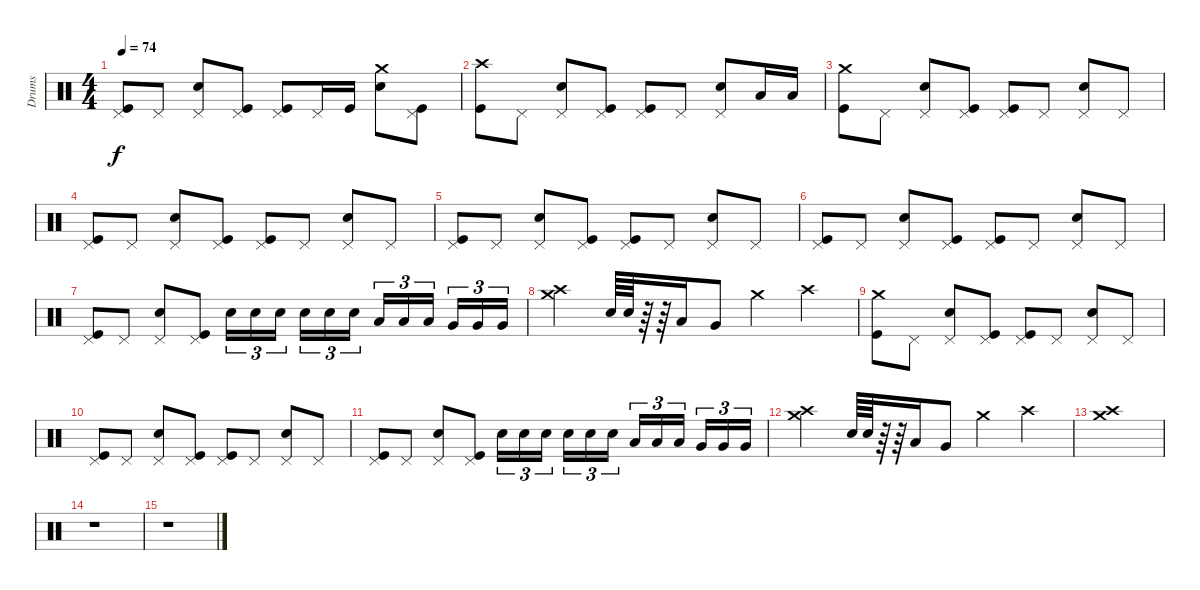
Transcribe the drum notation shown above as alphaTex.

\track ("Drums" "Drums") {instrument percussion}
\staff {score}
\articulation defaults
\ts (4 4)
\tempo 74
\clef neutral
\ks c
("Pedal Hi-Hat (hit)" "Kick (hit)").8{dy f} "Pedal Hi-Hat (hit)".8 ("Pedal Hi-Hat (hit)" "Snare (hit) 2").8 ("Pedal Hi-Hat (hit)" "Kick (hit)").8 ("Pedal Hi-Hat (hit)" "Kick (hit)").8 "Pedal Hi-Hat (hit)".16 "Kick (hit)".16 ("Crash medium (hit)" "Snare (hit) 2").8 ("Pedal Hi-Hat (hit)" "Kick (hit)").8 |
("Crash high (hit)" "Kick (hit)").8 "Pedal Hi-Hat (hit)".8 ("Pedal Hi-Hat (hit)" "Snare (hit) 2").8 ("Pedal Hi-Hat (hit)" "Kick (hit)").8 ("Pedal Hi-Hat (hit)" "Kick (hit)").8 "Pedal Hi-Hat (hit)".8 ("Pedal Hi-Hat (hit)" "Snare (hit) 2").8 "Low Tom (hit)".16 "Low Tom (hit)".16 |
("Crash medium (hit)" "Kick (hit)").8 "Pedal Hi-Hat (hit)".8 ("Pedal Hi-Hat (hit)" "Snare (hit) 2").8 ("Pedal Hi-Hat (hit)" "Kick (hit)").8 ("Pedal Hi-Hat (hit)" "Kick (hit)").8 "Pedal Hi-Hat (hit)".8 ("Pedal Hi-Hat (hit)" "Snare (hit) 2").8 "Pedal Hi-Hat (hit)".8 |
("Pedal Hi-Hat (hit)" "Kick (hit)").8 "Pedal Hi-Hat (hit)".8 ("Pedal Hi-Hat (hit)" "Snare (hit) 2").8 ("Pedal Hi-Hat (hit)" "Kick (hit)").8 ("Pedal Hi-Hat (hit)" "Kick (hit)").8 "Pedal Hi-Hat (hit)".8 ("Pedal Hi-Hat (hit)" "Snare (hit) 2").8 "Pedal Hi-Hat (hit)".8 |
("Pedal Hi-Hat (hit)" "Kick (hit)").8 "Pedal Hi-Hat (hit)".8 ("Pedal Hi-Hat (hit)" "Snare (hit) 2").8 ("Pedal Hi-Hat (hit)" "Kick (hit)").8 ("Pedal Hi-Hat (hit)" "Kick (hit)").8 "Pedal Hi-Hat (hit)".8 ("Pedal Hi-Hat (hit)" "Snare (hit) 2").8 "Pedal Hi-Hat (hit)".8 |
("Pedal Hi-Hat (hit)" "Kick (hit)").8 "Pedal Hi-Hat (hit)".8 ("Pedal Hi-Hat (hit)" "Snare (hit) 2").8 ("Pedal Hi-Hat (hit)" "Kick (hit)").8 ("Pedal Hi-Hat (hit)" "Kick (hit)").8 "Pedal Hi-Hat (hit)".8 ("Pedal Hi-Hat (hit)" "Snare (hit) 2").8 "Pedal Hi-Hat (hit)".8 |
("Pedal Hi-Hat (hit)" "Kick (hit)").8 "Pedal Hi-Hat (hit)".8 ("Pedal Hi-Hat (hit)" "Snare (hit) 2").8 ("Pedal Hi-Hat (hit)" "Kick (hit)").8 "Snare (hit) 2".16{tu (3 2)} "Snare (hit) 2".16{tu (3 2)} "Snare (hit) 2".16{tu (3 2)} "Snare (hit) 2".16{tu (3 2)} "Snare (hit) 2".16{tu (3 2)} "Snare (hit) 2".16{tu (3 2)} "Low Tom (hit)".16{tu (3 2)} "Low Tom (hit)".16{tu (3 2)} "Low Tom (hit)".16{tu (3 2)} "Very Low Tom (hit)".16{tu (3 2)} "Very Low Tom (hit)".16{tu (3 2)} "Very Low Tom (hit)".16{tu (3 2)} |
("Crash medium (hit)" "Crash high (hit)").4 "Snare (hit) 2".64 "Snare (hit) 2".64 r.64 r.64 "Low Tom (hit)".16 "Very Low Tom (hit)".8 "Crash medium (hit)".4 "Crash high (hit)".4 |
("Crash medium (hit)" "Kick (hit)").8 "Pedal Hi-Hat (hit)".8 ("Pedal Hi-Hat (hit)" "Snare (hit) 2").8 ("Pedal Hi-Hat (hit)" "Kick (hit)").8 ("Pedal Hi-Hat (hit)" "Kick (hit)").8 "Pedal Hi-Hat (hit)".8 ("Pedal Hi-Hat (hit)" "Snare (hit) 2").8 "Pedal Hi-Hat (hit)".8 |
("Pedal Hi-Hat (hit)" "Kick (hit)").8{volume 14} "Pedal Hi-Hat (hit)".8 ("Pedal Hi-Hat (hit)" "Snare (hit) 2").8 ("Pedal Hi-Hat (hit)" "Kick (hit)").8 ("Pedal Hi-Hat (hit)" "Kick (hit)").8{volume 13} "Pedal Hi-Hat (hit)".8 ("Pedal Hi-Hat (hit)" "Snare (hit) 2").8 "Pedal Hi-Hat (hit)".8 |
("Pedal Hi-Hat (hit)" "Kick (hit)").8{volume 12} "Pedal Hi-Hat (hit)".8 ("Pedal Hi-Hat (hit)" "Snare (hit) 2").8 ("Pedal Hi-Hat (hit)" "Kick (hit)").8 "Snare (hit) 2".16{tu (3 2) volume 11} "Snare (hit) 2".16{tu (3 2)} "Snare (hit) 2".16{tu (3 2)} "Snare (hit) 2".16{tu (3 2)} "Snare (hit) 2".16{tu (3 2)} "Snare (hit) 2".16{tu (3 2)} "Low Tom (hit)".16{tu (3 2)} "Low Tom (hit)".16{tu (3 2)} "Low Tom (hit)".16{tu (3 2)} "Very Low Tom (hit)".16{tu (3 2)} "Very Low Tom (hit)".16{tu (3 2)} "Very Low Tom (hit)".16{tu (3 2)} |
("Crash medium (hit)" "Crash high (hit)").4{volume 10} "Snare (hit) 2".64 "Snare (hit) 2".64 r.64 r.64 "Low Tom (hit)".16 "Very Low Tom (hit)".8 "Crash medium (hit)".4{volume 9} "Crash high (hit)".4 |
("Crash medium (hit)" "Crash high (hit)").1{volume 8} |
r.1 |
r.1
